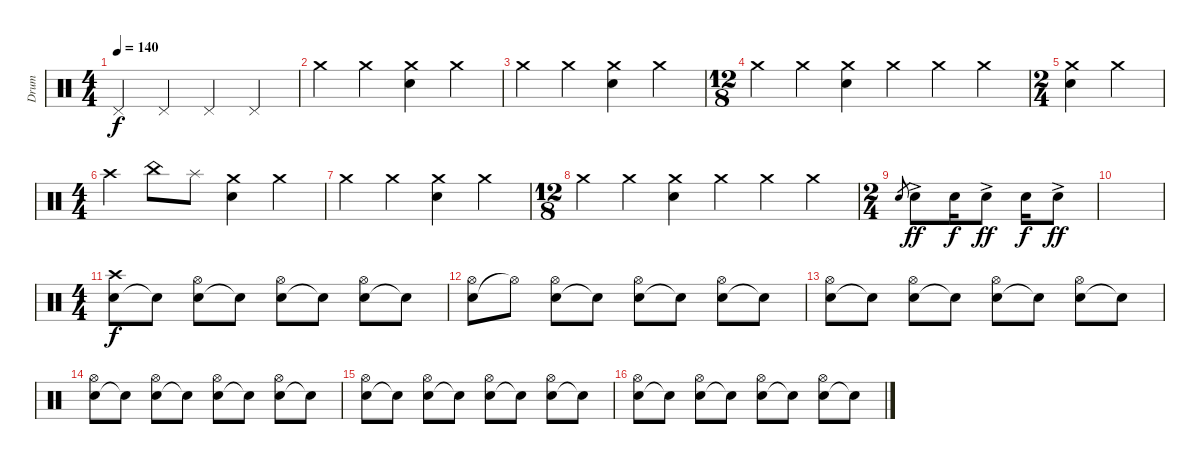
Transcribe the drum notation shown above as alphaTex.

\track ("Drum" "Drum") {instrument percussion}
\staff {score}
\articulation defaults
\ts (4 4)
\tempo 140
\clef neutral
\ks c "Pedal Hi-Hat (hit)".4{dy f} "Pedal Hi-Hat (hit)".4 "Pedal Hi-Hat (hit)".4 "Pedal Hi-Hat (hit)".4
|
"Crash medium (hit)".4 "Crash medium (hit)".4 ("Crash medium (hit)" "Snare (hit) 2").4 "Crash medium (hit)".4 |
"Crash medium (hit)".4 "Crash medium (hit)".4 ("Crash medium (hit)" "Snare (hit) 2").4 "Crash medium (hit)".4 |
\ts (12 8)
"Crash medium (hit)".4 "Crash medium (hit)".4 ("Crash medium (hit)" "Snare (hit) 2").4 "Crash medium (hit)".4 "Crash medium (hit)".4 "Crash medium (hit)".4 |
\ts (2 4)
("Crash medium (hit)" "Snare (hit) 2").4 "Crash medium (hit)".4 |
\ts (4 4)
"Crash high (hit)".4 "China (hit)".8 "Splash (hit)".8 ("Crash medium (hit)" "Snare (hit) 2").4 "Crash medium (hit)".4 |
"Crash medium (hit)".4 "Crash medium (hit)".4 ("Crash medium (hit)" "Snare (hit) 2").4 "Crash medium (hit)".4 |
\ts (12 8)
"Crash medium (hit)".4 "Crash medium (hit)".4 ("Crash medium (hit)" "Snare (hit) 2").4 "Crash medium (hit)".4 "Crash medium (hit)".4 "Crash medium (hit)".4 |
\ts (2 4)
"Snare (hit) 2".8{gr} "Snare (hit) 2"{ac}.8{dy ff} "Snare (hit) 2".16{dy f} "Snare (hit) 2"{ac}.8{dy ff} "Snare (hit) 2".16{dy f} "Snare (hit) 2"{ac}.8{dy ff} |
|
\ts (4 4)
("Snare (hit) 2" "Crash high (hit)").8{dy f} "Snare (hit)"{t}.8 ("Snare (hit) 2" "Hi-Hat (open)").8 "Snare (hit)"{t}.8 ("Snare (hit) 2" "Hi-Hat (open)").8 "Snare (hit)"{t}.8 ("Snare (hit) 2" "Hi-Hat (open)").8 "Snare (hit)"{t}.8 |
("Snare (hit) 2" "Hi-Hat (open)").8 "Hi-Hat (open)"{t}.8 ("Snare (hit) 2" "Hi-Hat (open)").8 "Snare (hit)"{t}.8 ("Snare (hit) 2" "Hi-Hat (open)").8 "Snare (hit)"{t}.8 ("Snare (hit) 2" "Hi-Hat (open)").8 "Snare (hit)"{t}.8 |
("Snare (hit) 2" "Hi-Hat (open)").8 "Snare (hit)"{t}.8 ("Snare (hit) 2" "Hi-Hat (open)").8 "Snare (hit)"{t}.8 ("Snare (hit) 2" "Hi-Hat (open)").8 "Snare (hit)"{t}.8 ("Snare (hit) 2" "Hi-Hat (open)").8 "Snare (hit)"{t}.8 |
("Snare (hit) 2" "Hi-Hat (open)").8 "Snare (hit)"{t}.8 ("Snare (hit) 2" "Hi-Hat (open)").8 "Snare (hit)"{t}.8 ("Snare (hit) 2" "Hi-Hat (open)").8 "Snare (hit)"{t}.8 ("Snare (hit) 2" "Hi-Hat (open)").8 "Snare (hit)"{t}.8 |
("Snare (hit) 2" "Hi-Hat (open)").8 "Snare (hit)"{t}.8 ("Snare (hit) 2" "Hi-Hat (open)").8 "Snare (hit)"{t}.8 ("Snare (hit) 2" "Hi-Hat (open)").8 "Snare (hit)"{t}.8 ("Snare (hit) 2" "Hi-Hat (open)").8 "Snare (hit)"{t}.8 |
("Snare (hit) 2" "Hi-Hat (open)").8 "Snare (hit)"{t}.8 ("Snare (hit) 2" "Hi-Hat (open)").8 "Snare (hit)"{t}.8 ("Snare (hit) 2" "Hi-Hat (open)").8 "Snare (hit)"{t}.8 ("Snare (hit) 2" "Hi-Hat (open)").8 "Snare (hit)"{t}.8
